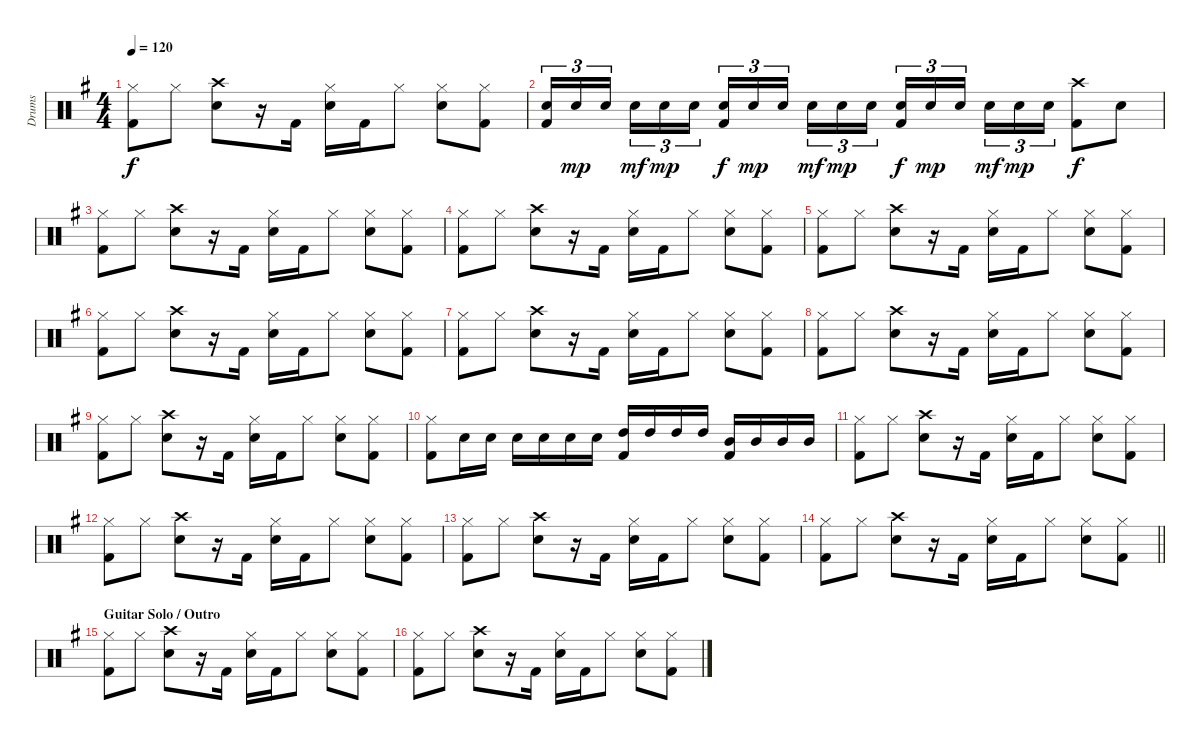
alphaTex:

\track ("Drums" "Drums") {instrument percussion}
\staff {score}
\articulation defaults
\ts (4 4)
\tempo 120
\clef neutral
\ks g
("Hi-Hat (closed)" "Kick (hit) 2").8{dy f} "Hi-Hat (closed)".8 ("Crash high (hit)" "Electric Snare (hit)").8 r.16 "Kick (hit) 2".16 ("Hi-Hat (closed)" "Electric Snare (hit)").16 "Kick (hit) 2".16 "Hi-Hat (closed)".8 ("Hi-Hat (closed)" "Electric Snare (hit)").8 ("Hi-Hat (closed)" "Kick (hit) 2").8 |
("Electric Snare (hit)" "Kick (hit) 2").16{tu (3 2)} "Electric Snare (hit)".16{tu (3 2) dy mp} "Electric Snare (hit)".16{tu (3 2) beam splitsecondary} "Electric Snare (hit)".16{tu (3 2) dy mf} "Electric Snare (hit)".16{tu (3 2) dy mp} "Electric Snare (hit)".16{tu (3 2)} ("Electric Snare (hit)" "Kick (hit) 2").16{tu (3 2) dy f} "Electric Snare (hit)".16{tu (3 2) dy mp} "Electric Snare (hit)".16{tu (3 2) beam splitsecondary} "Electric Snare (hit)".16{tu (3 2) dy mf} "Electric Snare (hit)".16{tu (3 2) dy mp} "Electric Snare (hit)".16{tu (3 2)} ("Electric Snare (hit)" "Kick (hit) 2").16{tu (3 2) dy f} "Electric Snare (hit)".16{tu (3 2) dy mp} "Electric Snare (hit)".16{tu (3 2) beam splitsecondary} "Electric Snare (hit)".16{tu (3 2) dy mf} "Electric Snare (hit)".16{tu (3 2) dy mp} "Electric Snare (hit)".16{tu (3 2)} ("Crash high (hit)" "Kick (hit) 2").8{dy f} "Electric Snare (hit)".8 |
("Hi-Hat (closed)" "Kick (hit) 2").8 "Hi-Hat (closed)".8 ("Crash high (hit)" "Electric Snare (hit)").8 r.16 "Kick (hit) 2".16 ("Hi-Hat (closed)" "Electric Snare (hit)").16 "Kick (hit) 2".16 "Hi-Hat (closed)".8 ("Hi-Hat (closed)" "Electric Snare (hit)").8 ("Hi-Hat (closed)" "Kick (hit) 2").8 |
("Hi-Hat (closed)" "Kick (hit) 2").8 "Hi-Hat (closed)".8 ("Crash high (hit)" "Electric Snare (hit)").8 r.16 "Kick (hit) 2".16 ("Hi-Hat (closed)" "Electric Snare (hit)").16 "Kick (hit) 2".16 "Hi-Hat (closed)".8 ("Hi-Hat (closed)" "Electric Snare (hit)").8 ("Hi-Hat (closed)" "Kick (hit) 2").8 |
("Hi-Hat (closed)" "Kick (hit) 2").8 "Hi-Hat (closed)".8 ("Crash high (hit)" "Electric Snare (hit)").8 r.16 "Kick (hit) 2".16 ("Hi-Hat (closed)" "Electric Snare (hit)").16 "Kick (hit) 2".16 "Hi-Hat (closed)".8 ("Hi-Hat (closed)" "Electric Snare (hit)").8 ("Hi-Hat (closed)" "Kick (hit) 2").8 |
("Hi-Hat (closed)" "Kick (hit) 2").8 "Hi-Hat (closed)".8 ("Crash high (hit)" "Electric Snare (hit)").8 r.16 "Kick (hit) 2".16 ("Hi-Hat (closed)" "Electric Snare (hit)").16 "Kick (hit) 2".16 "Hi-Hat (closed)".8 ("Hi-Hat (closed)" "Electric Snare (hit)").8 ("Hi-Hat (closed)" "Kick (hit) 2").8 |
("Hi-Hat (closed)" "Kick (hit) 2").8 "Hi-Hat (closed)".8 ("Crash high (hit)" "Electric Snare (hit)").8 r.16 "Kick (hit) 2".16 ("Hi-Hat (closed)" "Electric Snare (hit)").16 "Kick (hit) 2".16 "Hi-Hat (closed)".8 ("Hi-Hat (closed)" "Electric Snare (hit)").8 ("Hi-Hat (closed)" "Kick (hit) 2").8 |
("Hi-Hat (closed)" "Kick (hit) 2").8 "Hi-Hat (closed)".8 ("Crash high (hit)" "Electric Snare (hit)").8 r.16 "Kick (hit) 2".16 ("Hi-Hat (closed)" "Electric Snare (hit)").16 "Kick (hit) 2".16 "Hi-Hat (closed)".8 ("Hi-Hat (closed)" "Electric Snare (hit)").8 ("Hi-Hat (closed)" "Kick (hit) 2").8 |
("Hi-Hat (closed)" "Kick (hit) 2").8 "Hi-Hat (closed)".8 ("Crash high (hit)" "Electric Snare (hit)").8 r.16 "Kick (hit) 2".16 ("Hi-Hat (closed)" "Electric Snare (hit)").16 "Kick (hit) 2".16 "Hi-Hat (closed)".8 ("Hi-Hat (closed)" "Electric Snare (hit)").8 ("Hi-Hat (closed)" "Kick (hit) 2").8 |
("Hi-Hat (closed)" "Kick (hit) 2").8 "Electric Snare (hit)".16 "Electric Snare (hit)".16 "Electric Snare (hit)".16 "Electric Snare (hit)".16 "Electric Snare (hit)".16 "Electric Snare (hit)".16 ("High Tom (hit)" "Kick (hit) 2").16 "High Tom (hit)".16 "High Tom (hit)".16 "High Tom (hit)".16 ("Mid Tom (hit)" "Kick (hit) 2").16 "Mid Tom (hit)".16 "Mid Tom (hit)".16 "Mid Tom (hit)".16 |
("Hi-Hat (closed)" "Kick (hit) 2").8 "Hi-Hat (closed)".8 ("Crash high (hit)" "Electric Snare (hit)").8 r.16 "Kick (hit) 2".16 ("Hi-Hat (closed)" "Electric Snare (hit)").16 "Kick (hit) 2".16 "Hi-Hat (closed)".8 ("Hi-Hat (closed)" "Electric Snare (hit)").8 ("Hi-Hat (closed)" "Kick (hit) 2").8 |
("Hi-Hat (closed)" "Kick (hit) 2").8 "Hi-Hat (closed)".8 ("Crash high (hit)" "Electric Snare (hit)").8 r.16 "Kick (hit) 2".16 ("Hi-Hat (closed)" "Electric Snare (hit)").16 "Kick (hit) 2".16 "Hi-Hat (closed)".8 ("Hi-Hat (closed)" "Electric Snare (hit)").8 ("Hi-Hat (closed)" "Kick (hit) 2").8 |
("Hi-Hat (closed)" "Kick (hit) 2").8 "Hi-Hat (closed)".8 ("Crash high (hit)" "Electric Snare (hit)").8 r.16 "Kick (hit) 2".16 ("Hi-Hat (closed)" "Electric Snare (hit)").16 "Kick (hit) 2".16 "Hi-Hat (closed)".8 ("Hi-Hat (closed)" "Electric Snare (hit)").8 ("Hi-Hat (closed)" "Kick (hit) 2").8 |
\barLineRight lightlight
("Hi-Hat (closed)" "Kick (hit) 2").8 "Hi-Hat (closed)".8 ("Crash high (hit)" "Electric Snare (hit)").8 r.16 "Kick (hit) 2".16 ("Hi-Hat (closed)" "Electric Snare (hit)").16 "Kick (hit) 2".16 "Hi-Hat (closed)".8 ("Hi-Hat (closed)" "Electric Snare (hit)").8 ("Hi-Hat (closed)" "Kick (hit) 2").8 |
\section ("" "Guitar Solo / Outro")
("Hi-Hat (closed)" "Kick (hit) 2").8 "Hi-Hat (closed)".8 ("Crash high (hit)" "Electric Snare (hit)").8 r.16 "Kick (hit) 2".16 ("Hi-Hat (closed)" "Electric Snare (hit)").16 "Kick (hit) 2".16 "Hi-Hat (closed)".8 ("Hi-Hat (closed)" "Electric Snare (hit)").8 ("Hi-Hat (closed)" "Kick (hit) 2").8 |
("Hi-Hat (closed)" "Kick (hit) 2").8 "Hi-Hat (closed)".8 ("Crash high (hit)" "Electric Snare (hit)").8 r.16 "Kick (hit) 2".16 ("Hi-Hat (closed)" "Electric Snare (hit)").16 "Kick (hit) 2".16 "Hi-Hat (closed)".8 ("Hi-Hat (closed)" "Electric Snare (hit)").8 ("Hi-Hat (closed)" "Kick (hit) 2").8
